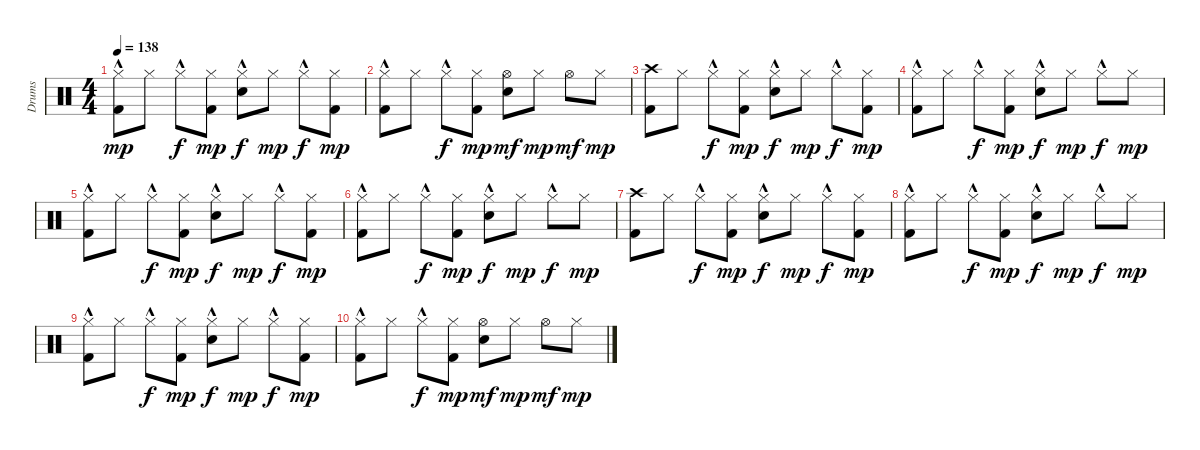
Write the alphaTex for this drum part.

\track ("Drums" "Drums") {instrument percussion}
\staff {score}
\articulation defaults
\ts (4 4)
\tempo 138
\clef neutral
\ks c
("Hi-Hat (closed)"{hac} "Kick (hit) 2").8{dy mp} "Hi-Hat (closed)".8 "Hi-Hat (closed)"{hac}.8{dy f} ("Hi-Hat (closed)" "Kick (hit) 2").8{dy mp} ("Hi-Hat (closed)"{hac} "Hand Clap (hit)").8{dy f} "Hi-Hat (closed)".8{dy mp} "Hi-Hat (closed)"{hac}.8{dy f} ("Hi-Hat (closed)" "Kick (hit) 2").8{dy mp} |
("Hi-Hat (closed)"{hac} "Kick (hit) 2").8 "Hi-Hat (closed)".8 "Hi-Hat (closed)"{hac}.8{dy f} ("Hi-Hat (closed)" "Kick (hit) 2").8{dy mp} ("Hi-Hat (open)" "Hand Clap (hit)").8{dy mf} "Hi-Hat (closed)".8{dy mp} "Hi-Hat (open)".8{dy mf} "Hi-Hat (closed)".8{dy mp} |
("Crash high (hit)" "Kick (hit) 2").8 "Hi-Hat (closed)".8 "Hi-Hat (closed)"{hac}.8{dy f} ("Hi-Hat (closed)" "Kick (hit) 2").8{dy mp} ("Hi-Hat (closed)"{hac} "Hand Clap (hit)").8{dy f} "Hi-Hat (closed)".8{dy mp} "Hi-Hat (closed)"{hac}.8{dy f} ("Hi-Hat (closed)" "Kick (hit) 2").8{dy mp} |
("Hi-Hat (closed)"{hac} "Kick (hit) 2").8 "Hi-Hat (closed)".8 "Hi-Hat (closed)"{hac}.8{dy f} ("Hi-Hat (closed)" "Kick (hit) 2").8{dy mp} ("Hi-Hat (closed)"{hac} "Hand Clap (hit)").8{dy f} "Hi-Hat (closed)".8{dy mp} "Hi-Hat (closed)"{hac}.8{dy f} "Hi-Hat (closed)".8{dy mp} |
("Hi-Hat (closed)"{hac} "Kick (hit) 2").8 "Hi-Hat (closed)".8 "Hi-Hat (closed)"{hac}.8{dy f} ("Hi-Hat (closed)" "Kick (hit) 2").8{dy mp} ("Hi-Hat (closed)"{hac} "Hand Clap (hit)").8{dy f} "Hi-Hat (closed)".8{dy mp} "Hi-Hat (closed)"{hac}.8{dy f} ("Hi-Hat (closed)" "Kick (hit) 2").8{dy mp} |
("Hi-Hat (closed)"{hac} "Kick (hit) 2").8 "Hi-Hat (closed)".8 "Hi-Hat (closed)"{hac}.8{dy f} ("Hi-Hat (closed)" "Kick (hit) 2").8{dy mp} ("Hi-Hat (closed)"{hac} "Hand Clap (hit)").8{dy f} "Hi-Hat (closed)".8{dy mp} "Hi-Hat (closed)"{hac}.8{dy f} "Hi-Hat (closed)".8{dy mp} |
("Crash high (hit)" "Kick (hit) 2").8 "Hi-Hat (closed)".8 "Hi-Hat (closed)"{hac}.8{dy f} ("Hi-Hat (closed)" "Kick (hit) 2").8{dy mp} ("Hi-Hat (closed)"{hac} "Hand Clap (hit)").8{dy f} "Hi-Hat (closed)".8{dy mp} "Hi-Hat (closed)"{hac}.8{dy f} ("Hi-Hat (closed)" "Kick (hit) 2").8{dy mp} |
("Hi-Hat (closed)"{hac} "Kick (hit) 2").8 "Hi-Hat (closed)".8 "Hi-Hat (closed)"{hac}.8{dy f} ("Hi-Hat (closed)" "Kick (hit) 2").8{dy mp} ("Hi-Hat (closed)"{hac} "Hand Clap (hit)").8{dy f} "Hi-Hat (closed)".8{dy mp} "Hi-Hat (closed)"{hac}.8{dy f} "Hi-Hat (closed)".8{dy mp} |
("Hi-Hat (closed)"{hac} "Kick (hit) 2").8 "Hi-Hat (closed)".8 "Hi-Hat (closed)"{hac}.8{dy f} ("Hi-Hat (closed)" "Kick (hit) 2").8{dy mp} ("Hi-Hat (closed)"{hac} "Hand Clap (hit)").8{dy f} "Hi-Hat (closed)".8{dy mp} "Hi-Hat (closed)"{hac}.8{dy f} ("Hi-Hat (closed)" "Kick (hit) 2").8{dy mp} |
("Hi-Hat (closed)"{hac} "Kick (hit) 2").8 "Hi-Hat (closed)".8 "Hi-Hat (closed)"{hac}.8{dy f} ("Hi-Hat (closed)" "Kick (hit) 2").8{dy mp} ("Hi-Hat (open)" "Hand Clap (hit)").8{dy mf} "Hi-Hat (closed)".8{dy mp} "Hi-Hat (open)".8{dy mf} "Hi-Hat (closed)".8{dy mp}
